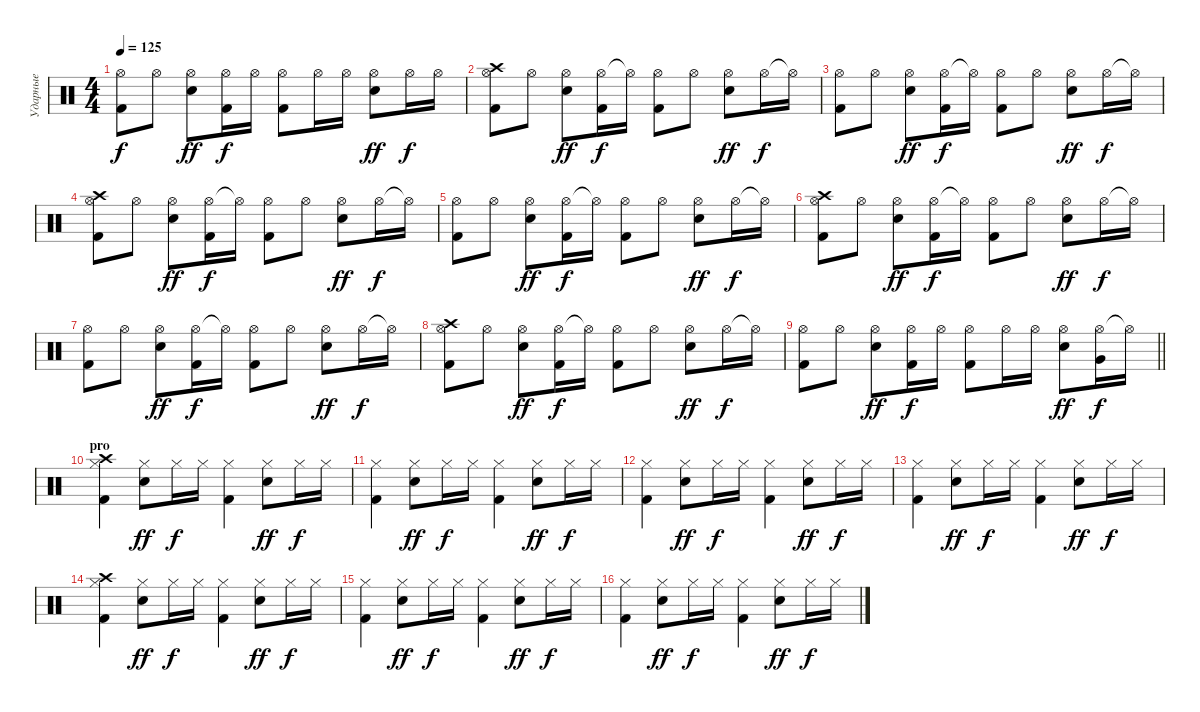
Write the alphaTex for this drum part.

\track ("Ударные" "Ударные") {instrument percussion}
\staff {score}
\articulation defaults
\ts (4 4)
\tempo 125
\clef neutral
\ks c
("Hi-Hat (open)" "Kick (hit) 2").8{dy f} "Hi-Hat (open)".8 ("Hi-Hat (open)" "Electric Snare (hit)").8{dy ff} ("Hi-Hat (open)" "Kick (hit) 2").16{dy f} "Hi-Hat (open)".16 ("Hi-Hat (open)" "Kick (hit) 2").8 "Hi-Hat (open)".16 "Hi-Hat (open)".16 ("Hi-Hat (open)" "Electric Snare (hit)").8{dy ff} "Hi-Hat (open)".16{dy f} "Hi-Hat (open)".16 |
("Crash high (hit)" "Hi-Hat (open)" "Kick (hit) 2").8 "Hi-Hat (open)".8 ("Hi-Hat (open)" "Electric Snare (hit)").8{dy ff} ("Hi-Hat (open)" "Kick (hit) 2").16{dy f} "Hi-Hat (open)"{t}.16 ("Hi-Hat (open)" "Kick (hit) 2").8 "Hi-Hat (open)".8 ("Hi-Hat (open)" "Electric Snare (hit)").8{dy ff} "Hi-Hat (open)".16{dy f} "Hi-Hat (open)"{t}.16 |
("Hi-Hat (open)" "Kick (hit) 2").8 "Hi-Hat (open)".8 ("Hi-Hat (open)" "Electric Snare (hit)").8{dy ff} ("Hi-Hat (open)" "Kick (hit) 2").16{dy f} "Hi-Hat (open)"{t}.16 ("Hi-Hat (open)" "Kick (hit) 2").8 "Hi-Hat (open)".8 ("Hi-Hat (open)" "Electric Snare (hit)").8{dy ff} "Hi-Hat (open)".16{dy f} "Hi-Hat (open)"{t}.16 |
("Crash high (hit)" "Hi-Hat (open)" "Kick (hit) 2").8 "Hi-Hat (open)".8 ("Hi-Hat (open)" "Electric Snare (hit)").8{dy ff} ("Hi-Hat (open)" "Kick (hit) 2").16{dy f} "Hi-Hat (open)"{t}.16 ("Hi-Hat (open)" "Kick (hit) 2").8 "Hi-Hat (open)".8 ("Hi-Hat (open)" "Electric Snare (hit)").8{dy ff} "Hi-Hat (open)".16{dy f} "Hi-Hat (open)"{t}.16 |
("Hi-Hat (open)" "Kick (hit) 2").8 "Hi-Hat (open)".8 ("Hi-Hat (open)" "Electric Snare (hit)").8{dy ff} ("Hi-Hat (open)" "Kick (hit) 2").16{dy f} "Hi-Hat (open)"{t}.16 ("Hi-Hat (open)" "Kick (hit) 2").8 "Hi-Hat (open)".8 ("Hi-Hat (open)" "Electric Snare (hit)").8{dy ff} "Hi-Hat (open)".16{dy f} "Hi-Hat (open)"{t}.16 |
("Crash high (hit)" "Hi-Hat (open)" "Kick (hit) 2").8 "Hi-Hat (open)".8 ("Hi-Hat (open)" "Electric Snare (hit)").8{dy ff} ("Hi-Hat (open)" "Kick (hit) 2").16{dy f} "Hi-Hat (open)"{t}.16 ("Hi-Hat (open)" "Kick (hit) 2").8 "Hi-Hat (open)".8 ("Hi-Hat (open)" "Electric Snare (hit)").8{dy ff} "Hi-Hat (open)".16{dy f} "Hi-Hat (open)"{t}.16 |
("Hi-Hat (open)" "Kick (hit) 2").8 "Hi-Hat (open)".8 ("Hi-Hat (open)" "Electric Snare (hit)").8{dy ff} ("Hi-Hat (open)" "Kick (hit) 2").16{dy f} "Hi-Hat (open)"{t}.16 ("Hi-Hat (open)" "Kick (hit) 2").8 "Hi-Hat (open)".8 ("Hi-Hat (open)" "Electric Snare (hit)").8{dy ff} "Hi-Hat (open)".16{dy f} "Hi-Hat (open)"{t}.16 |
("Crash high (hit)" "Hi-Hat (open)" "Kick (hit) 2").8 "Hi-Hat (open)".8 ("Hi-Hat (open)" "Electric Snare (hit)").8{dy ff} ("Hi-Hat (open)" "Kick (hit) 2").16{dy f} "Hi-Hat (open)"{t}.16 ("Hi-Hat (open)" "Kick (hit) 2").8 "Hi-Hat (open)".8 ("Hi-Hat (open)" "Electric Snare (hit)").8{dy ff} "Hi-Hat (open)".16{dy f} "Hi-Hat (open)"{t}.16 |
\barLineRight lightlight
("Hi-Hat (open)" "Kick (hit) 2").8 "Hi-Hat (open)".8 ("Hi-Hat (open)" "Electric Snare (hit)").8{dy ff} ("Hi-Hat (open)" "Kick (hit) 2").16{dy f} "Hi-Hat (open)".16 ("Hi-Hat (open)" "Kick (hit) 2").8 "Hi-Hat (open)".16 "Hi-Hat (open)".16 ("Hi-Hat (open)" "Electric Snare (hit)").8{dy ff} ("Hi-Hat (open)" "Very Low Tom (hit)").16{dy f} "Hi-Hat (open)"{t}.16 |
\section ("" "pro")
("Crash high (hit)" "Hi-Hat (closed)" "Kick (hit) 2").4 ("Hi-Hat (closed)" "Electric Snare (hit)").8{dy ff} "Hi-Hat (closed)".16{dy f} "Hi-Hat (closed)".16 ("Hi-Hat (closed)" "Kick (hit) 2").4 ("Hi-Hat (closed)" "Electric Snare (hit)").8{dy ff} "Hi-Hat (closed)".16{dy f} "Hi-Hat (closed)".16 |
("Hi-Hat (closed)" "Kick (hit) 2").4 ("Hi-Hat (closed)" "Electric Snare (hit)").8{dy ff} "Hi-Hat (closed)".16{dy f} "Hi-Hat (closed)".16 ("Hi-Hat (closed)" "Kick (hit) 2").4 ("Hi-Hat (closed)" "Electric Snare (hit)").8{dy ff} "Hi-Hat (closed)".16{dy f} "Hi-Hat (closed)".16 |
("Hi-Hat (closed)" "Kick (hit) 2").4 ("Hi-Hat (closed)" "Electric Snare (hit)").8{dy ff} "Hi-Hat (closed)".16{dy f} "Hi-Hat (closed)".16 ("Hi-Hat (closed)" "Kick (hit) 2").4 ("Hi-Hat (closed)" "Electric Snare (hit)").8{dy ff} "Hi-Hat (closed)".16{dy f} "Hi-Hat (closed)".16 |
("Hi-Hat (closed)" "Kick (hit) 2").4 ("Hi-Hat (closed)" "Electric Snare (hit)").8{dy ff} "Hi-Hat (closed)".16{dy f} "Hi-Hat (closed)".16 ("Hi-Hat (closed)" "Kick (hit) 2").4 ("Hi-Hat (closed)" "Electric Snare (hit)").8{dy ff} "Hi-Hat (closed)".16{dy f} "Hi-Hat (closed)".16 |
("Crash high (hit)" "Hi-Hat (closed)" "Kick (hit) 2").4 ("Hi-Hat (closed)" "Electric Snare (hit)").8{dy ff} "Hi-Hat (closed)".16{dy f} "Hi-Hat (closed)".16 ("Hi-Hat (closed)" "Kick (hit) 2").4 ("Hi-Hat (closed)" "Electric Snare (hit)").8{dy ff} "Hi-Hat (closed)".16{dy f} "Hi-Hat (closed)".16 |
("Hi-Hat (closed)" "Kick (hit) 2").4 ("Hi-Hat (closed)" "Electric Snare (hit)").8{dy ff} "Hi-Hat (closed)".16{dy f} "Hi-Hat (closed)".16 ("Hi-Hat (closed)" "Kick (hit) 2").4 ("Hi-Hat (closed)" "Electric Snare (hit)").8{dy ff} "Hi-Hat (closed)".16{dy f} "Hi-Hat (closed)".16 |
("Hi-Hat (closed)" "Kick (hit) 2").4 ("Hi-Hat (closed)" "Electric Snare (hit)").8{dy ff} "Hi-Hat (closed)".16{dy f} "Hi-Hat (closed)".16 ("Hi-Hat (closed)" "Kick (hit) 2").4 ("Hi-Hat (closed)" "Electric Snare (hit)").8{dy ff} "Hi-Hat (closed)".16{dy f} "Hi-Hat (closed)".16
